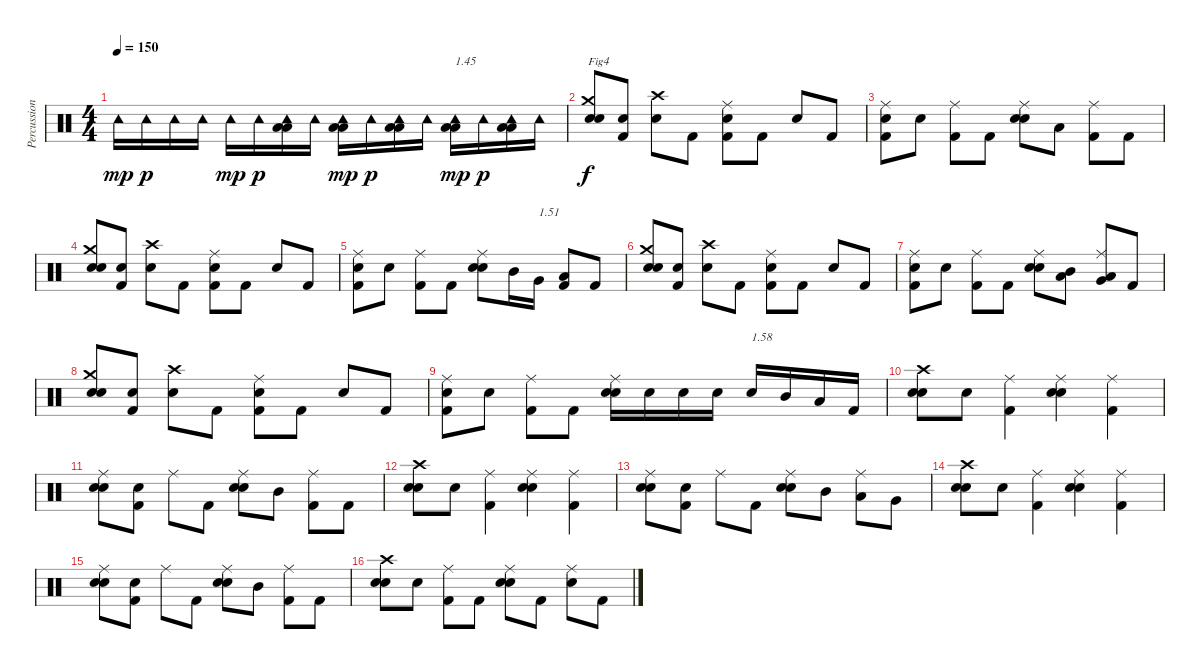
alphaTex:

\track ("Percussions" "Percussion") {instrument percussion}
\staff {score}
\articulation defaults
\ts (4 4)
\tempo 150
\clef neutral
\ks c "Tambourine (hit)".16{dy mp} "Tambourine (hit)".16{dy p} "Tambourine (hit)".16 "Tambourine (hit)".16 "Tambourine (hit)".16{dy mp} "Tambourine (hit)".16{dy p}
("Low Tom (hit)" "Low Floor Tom (hit)" "Tambourine (hit)").16 "Tambourine (hit)".16 ("Low Tom (hit)" "Low Floor Tom (hit)" "Tambourine (hit)").16{dy mp} "Tambourine (hit)".16{dy p} ("Low Tom (hit)" "Low Floor Tom (hit)" "Tambourine (hit)").16 "Tambourine (hit)".16 ("Low Tom (hit)" "Low Floor Tom (hit)" "Tambourine (hit)").16{txt "1.45" dy mp} "Tambourine (hit)".16{dy p} ("Low Tom (hit)" "Low Floor Tom (hit)" "Tambourine (hit)").16 "Tambourine (hit)".16 |
("Electric Snare (hit)" "Crash medium (hit)" "Hand Clap (hit)").8{txt "Fig4" dy f} ("Kick (hit) 2" "Hand Clap (hit)").8 ("Electric Snare (hit)" "Crash high (hit)").8 "Kick (hit) 2".8 ("Kick (hit) 2" "Ride (middle)" "Hand Clap (hit)").8 "Kick (hit) 2".8 "Electric Snare (hit)".8 "Kick (hit) 2".8 |
("Kick (hit) 2" "Ride (middle)" "Hand Clap (hit)").8 "Electric Snare (hit)".8 ("Kick (hit) 2" "Ride (middle)").8 "Kick (hit) 2".8 ("Electric Snare (hit)" "Ride (middle)" "Hand Clap (hit)").8 "Low Floor Tom (hit)".8 ("Kick (hit) 2" "Ride (middle)").8 "Kick (hit) 2".8 |
("Electric Snare (hit)" "Crash medium (hit)" "Hand Clap (hit)").8 ("Kick (hit) 2" "Hand Clap (hit)").8 ("Electric Snare (hit)" "Crash high (hit)").8 "Kick (hit) 2".8 ("Kick (hit) 2" "Ride (middle)" "Hand Clap (hit)").8 "Kick (hit) 2".8 "Electric Snare (hit)".8 "Kick (hit) 2".8 |
("Kick (hit) 2" "Ride (middle)" "Hand Clap (hit)").8 "Electric Snare (hit)".8 ("Kick (hit) 2" "Ride (middle)").8 "Kick (hit) 2".8 ("Electric Snare (hit)" "Ride (middle)" "Hand Clap (hit)").8 "Mid Tom (hit)".16 "Very Low Tom (hit)".16{txt "1.51"} ("Kick (hit) 2" "Low Floor Tom (hit)").8 "Kick (hit) 2".8 |
("Electric Snare (hit)" "Crash medium (hit)" "Hand Clap (hit)").8 ("Kick (hit) 2" "Hand Clap (hit)").8 ("Electric Snare (hit)" "Crash high (hit)").8 "Kick (hit) 2".8 ("Kick (hit) 2" "Ride (middle)" "Hand Clap (hit)").8 "Kick (hit) 2".8 "Electric Snare (hit)".8 "Kick (hit) 2".8 |
("Kick (hit) 2" "Ride (middle)" "Hand Clap (hit)").8 "Electric Snare (hit)".8 ("Kick (hit) 2" "Ride (middle)").8 "Kick (hit) 2".8 ("Electric Snare (hit)" "Ride (middle)" "Hand Clap (hit)").8 ("Low Tom (hit)" "Mid Tom (hit)").8 ("Very Low Tom (hit)" "Low Tom (hit)" "Ride (middle)").8 "Kick (hit) 2".8 |
("Electric Snare (hit)" "Crash medium (hit)" "Hand Clap (hit)").8 ("Kick (hit) 2" "Hand Clap (hit)").8 ("Electric Snare (hit)" "Crash high (hit)").8 "Kick (hit) 2".8 ("Kick (hit) 2" "Ride (middle)" "Hand Clap (hit)").8 "Kick (hit) 2".8 "Electric Snare (hit)".8 "Kick (hit) 2".8 |
("Kick (hit) 2" "Ride (middle)" "Hand Clap (hit)").8 "Electric Snare (hit)".8 ("Kick (hit) 2" "Ride (middle)").8 "Kick (hit) 2".8 ("Electric Snare (hit)" "Ride (middle)" "Hand Clap (hit)").16 "Electric Snare (hit)".16 "Electric Snare (hit)".16 "Electric Snare (hit)".16 "Electric Snare (hit)".16{txt "1.58"} "Mid Tom (hit)".16 "Low Tom (hit)".16 "Kick (hit) 2".16 |
("Electric Snare (hit)" "Crash high (hit)" "Hand Clap (hit)").8 "Hand Clap (hit)".8 ("Kick (hit) 2" "Ride (middle)").4 ("Electric Snare (hit)" "Ride (middle)" "Hand Clap (hit)").4 ("Kick (hit) 2" "Ride (middle)").4 |
("Electric Snare (hit)" "Ride (middle)" "Hand Clap (hit)").8 ("Kick (hit) 2" "Hand Clap (hit)").8 "Ride (middle)".8 "Kick (hit) 2".8 ("Electric Snare (hit)" "Ride (middle)" "Hand Clap (hit)").8 "Mid Tom (hit)".8 ("Kick (hit) 2" "Ride (middle)").8 "Kick (hit) 2".8 |
("Electric Snare (hit)" "Crash high (hit)" "Hand Clap (hit)").8 "Hand Clap (hit)".8 ("Kick (hit) 2" "Ride (middle)").4 ("Electric Snare (hit)" "Ride (middle)" "Hand Clap (hit)").4 ("Kick (hit) 2" "Ride (middle)").4 |
("Electric Snare (hit)" "Ride (middle)" "Hand Clap (hit)").8 ("Kick (hit) 2" "Hand Clap (hit)").8 "Ride (middle)".8 "Kick (hit) 2".8 ("Electric Snare (hit)" "Ride (middle)" "Hand Clap (hit)").8 "Mid Tom (hit)".8 ("Low Tom (hit)" "Ride (middle)").8 "Very Low Tom (hit)".8 |
("Electric Snare (hit)" "Crash high (hit)" "Hand Clap (hit)").8 "Hand Clap (hit)".8 ("Kick (hit) 2" "Ride (middle)").4 ("Electric Snare (hit)" "Ride (middle)" "Hand Clap (hit)").4 ("Kick (hit) 2" "Ride (middle)").4 |
("Electric Snare (hit)" "Ride (middle)" "Hand Clap (hit)").8 ("Kick (hit) 2" "Hand Clap (hit)").8 "Ride (middle)".8 "Kick (hit) 2".8 ("Electric Snare (hit)" "Ride (middle)" "Hand Clap (hit)").8 "Mid Tom (hit)".8 ("Kick (hit) 2" "Ride (middle)").8 "Kick (hit) 2".8 |
("Electric Snare (hit)" "Crash high (hit)" "Hand Clap (hit)").8 "Hand Clap (hit)".8 ("Kick (hit) 2" "Ride (middle)").8 "Kick (hit) 2".8 ("Electric Snare (hit)" "Ride (middle)" "Hand Clap (hit)").8 "Kick (hit) 2".8 ("Electric Snare (hit)" "Ride (middle)").8 "Kick (hit) 2".8
